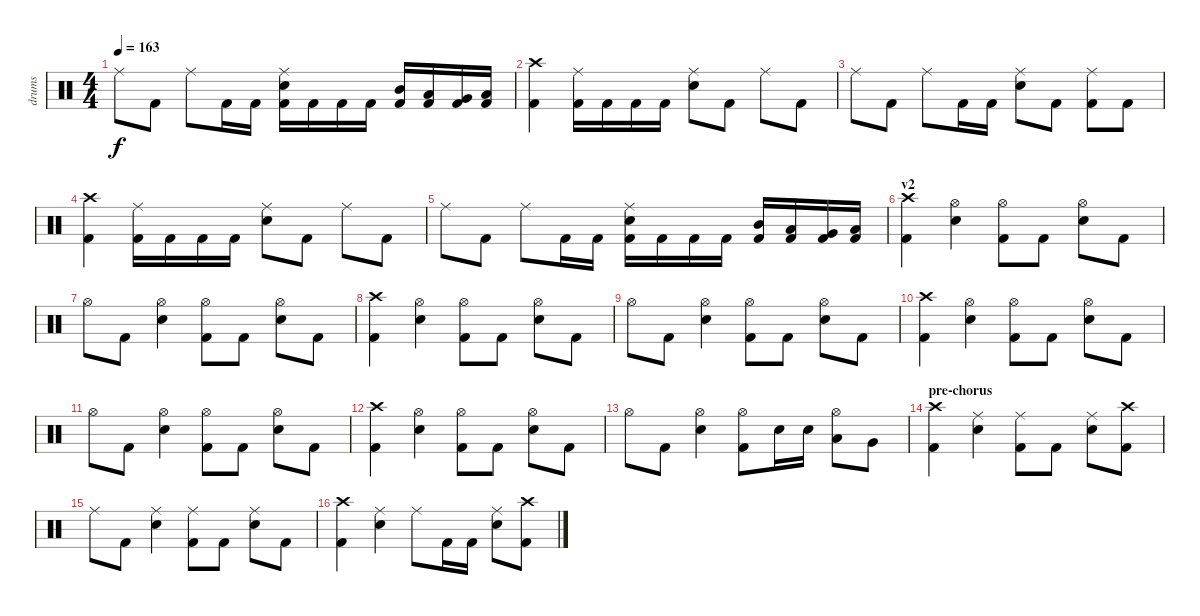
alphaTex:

\track ("drums" "drums") {instrument percussion}
\staff {score}
\articulation defaults
\ts (4 4)
\tempo 163
\clef neutral
\ks c "Ride (middle)".8{dy f} "Kick (hit) 2".8 "Ride (middle)".8 "Kick (hit) 2".16 "Kick (hit) 2".16
("Ride (middle)" "Electric Snare (hit)" "Kick (hit) 2").16 "Kick (hit) 2".16 "Kick (hit) 2".16 "Kick (hit) 2".16 ("Mid Tom (hit)" "Kick (hit) 2").16 ("Low Tom (hit)" "Kick (hit) 2").16 ("Very Low Tom (hit)" "Kick (hit) 2").16 ("Low Floor Tom (hit)" "Kick (hit) 2").16 |
("Crash high (hit)" "Kick (hit) 2").4 ("Ride (middle)" "Kick (hit) 2").16 "Kick (hit) 2".16 "Kick (hit) 2".16 "Kick (hit) 2".16 ("Ride (middle)" "Electric Snare (hit)").8 "Kick (hit) 2".8 "Ride (middle)".8 "Kick (hit) 2".8 |
"Ride (middle)".8 "Kick (hit) 2".8 "Ride (middle)".8 "Kick (hit) 2".16 "Kick (hit) 2".16 ("Ride (middle)" "Electric Snare (hit)").8 "Kick (hit) 2".8 ("Ride (middle)" "Kick (hit) 2").8 "Kick (hit) 2".8 |
("Crash high (hit)" "Kick (hit) 2").4 ("Ride (middle)" "Kick (hit) 2").16 "Kick (hit) 2".16 "Kick (hit) 2".16 "Kick (hit) 2".16 ("Ride (middle)" "Electric Snare (hit)").8 "Kick (hit) 2".8 "Ride (middle)".8 "Kick (hit) 2".8 |
"Ride (middle)".8 "Kick (hit) 2".8 "Ride (middle)".8 "Kick (hit) 2".16 "Kick (hit) 2".16 ("Ride (middle)" "Electric Snare (hit)" "Kick (hit) 2").16 "Kick (hit) 2".16 "Kick (hit) 2".16 "Kick (hit) 2".16 ("Mid Tom (hit)" "Kick (hit) 2").16 ("Low Tom (hit)" "Kick (hit) 2").16 ("Very Low Tom (hit)" "Kick (hit) 2").16 ("Low Floor Tom (hit)" "Kick (hit) 2").16 |
\section ("" "v2")
("Crash high (hit)" "Kick (hit) 2").4 ("Hi-Hat (open)" "Electric Snare (hit)").4 ("Hi-Hat (open)" "Kick (hit) 2").8 "Kick (hit) 2".8 ("Hi-Hat (open)" "Electric Snare (hit)").8 "Kick (hit) 2".8 |
"Hi-Hat (open)".8 "Kick (hit) 2".8 ("Hi-Hat (open)" "Electric Snare (hit)").4 ("Hi-Hat (open)" "Kick (hit) 2").8 "Kick (hit) 2".8 ("Hi-Hat (open)" "Electric Snare (hit)").8 "Kick (hit) 2".8 |
("Crash high (hit)" "Kick (hit) 2").4 ("Hi-Hat (open)" "Electric Snare (hit)").4 ("Hi-Hat (open)" "Kick (hit) 2").8 "Kick (hit) 2".8 ("Hi-Hat (open)" "Electric Snare (hit)").8 "Kick (hit) 2".8 |
"Hi-Hat (open)".8 "Kick (hit) 2".8 ("Hi-Hat (open)" "Electric Snare (hit)").4 ("Hi-Hat (open)" "Kick (hit) 2").8 "Kick (hit) 2".8 ("Hi-Hat (open)" "Electric Snare (hit)").8 "Kick (hit) 2".8 |
("Crash high (hit)" "Kick (hit) 2").4 ("Hi-Hat (open)" "Electric Snare (hit)").4 ("Hi-Hat (open)" "Kick (hit) 2").8 "Kick (hit) 2".8 ("Hi-Hat (open)" "Electric Snare (hit)").8 "Kick (hit) 2".8 |
"Hi-Hat (open)".8 "Kick (hit) 2".8 ("Hi-Hat (open)" "Electric Snare (hit)").4 ("Hi-Hat (open)" "Kick (hit) 2").8 "Kick (hit) 2".8 ("Hi-Hat (open)" "Electric Snare (hit)").8 "Kick (hit) 2".8 |
("Crash high (hit)" "Kick (hit) 2").4 ("Hi-Hat (open)" "Electric Snare (hit)").4 ("Hi-Hat (open)" "Kick (hit) 2").8 "Kick (hit) 2".8 ("Hi-Hat (open)" "Electric Snare (hit)").8 "Kick (hit) 2".8 |
"Hi-Hat (open)".8 "Kick (hit) 2".8 ("Hi-Hat (open)" "Electric Snare (hit)").4 ("Hi-Hat (open)" "Kick (hit) 2").8 "Electric Snare (hit)".16 "Electric Snare (hit)".16 ("Hi-Hat (open)" "Low Tom (hit)").8 "Very Low Tom (hit)".8 |
\section ("" "pre-chorus")
("Crash high (hit)" "Kick (hit) 2").4 ("Ride (middle)" "Electric Snare (hit)").4 ("Ride (middle)" "Kick (hit) 2").8 "Kick (hit) 2".8 ("Ride (middle)" "Electric Snare (hit)").8 ("Crash high (hit)" "Kick (hit) 2").8 |
"Ride (middle)".8 "Kick (hit) 2".8 ("Ride (middle)" "Electric Snare (hit)").4 ("Ride (middle)" "Kick (hit) 2").8 "Kick (hit) 2".8 ("Ride (middle)" "Electric Snare (hit)").8 "Kick (hit) 2".8 |
("Crash high (hit)" "Kick (hit) 2").4 ("Ride (middle)" "Electric Snare (hit)").4 "Ride (middle)".8 "Kick (hit) 2".16 "Kick (hit) 2".16 ("Ride (middle)" "Electric Snare (hit)").8 ("Crash high (hit)" "Kick (hit) 2").8
